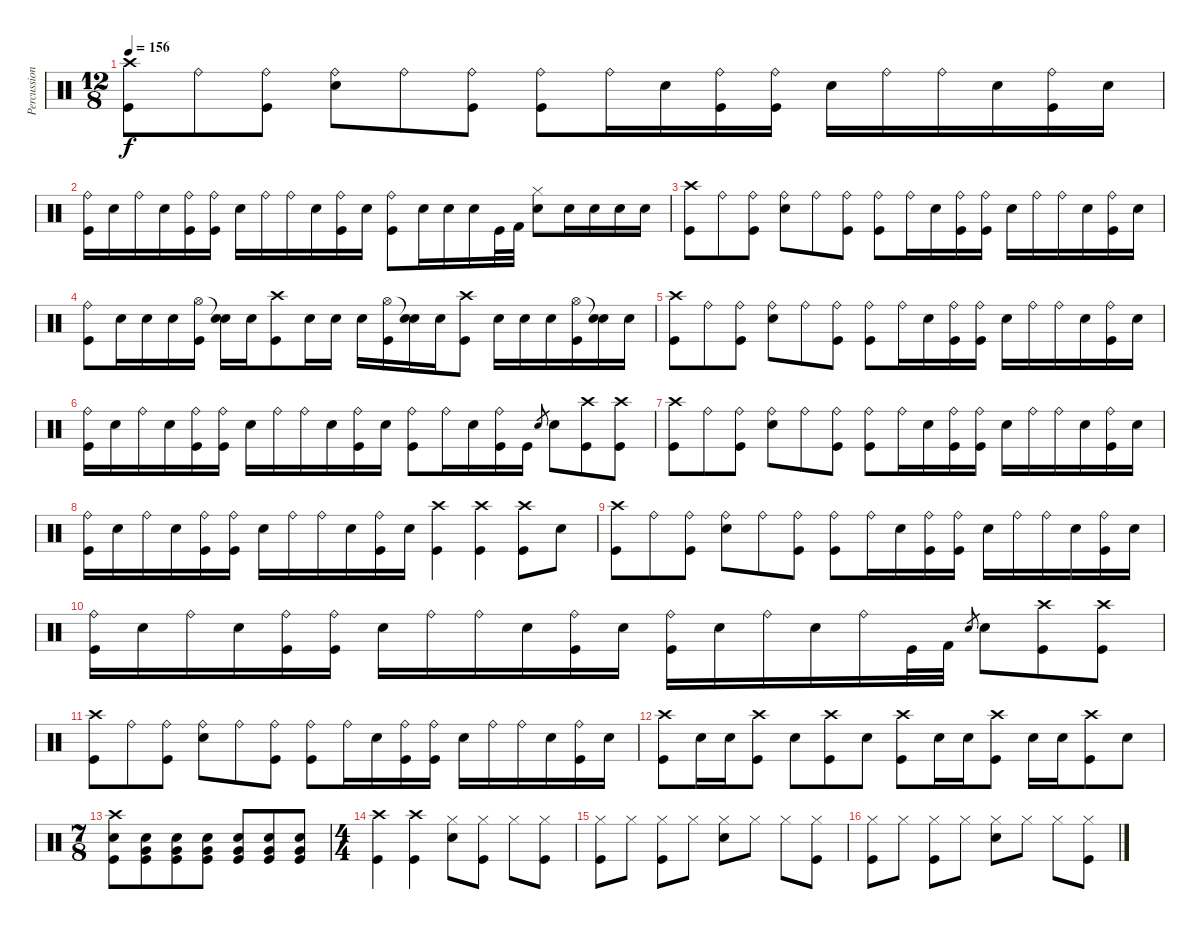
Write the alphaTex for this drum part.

\track ("Percussion" "Percussion") {instrument percussion}
\staff {score}
\articulation defaults
\ts (12 8)
\tempo 156
\clef neutral
\ks c
("Crash high (hit)" "Kick (hit)").8{dy f} "Ride (bell)".8 ("Ride (bell)" "Kick (hit)").8 ("Ride (bell)" "Electric Snare (hit)").8 "Ride (bell)".8 ("Ride (bell)" "Kick (hit)").8 ("Ride (bell)" "Kick (hit)").8 "Ride (bell)".16 "Electric Snare (hit)".16 ("Ride (bell)" "Kick (hit)").16 ("Ride (bell)" "Kick (hit)").16 "Electric Snare (hit)".16 "Ride (bell)".16 "Ride (bell)".16 "Electric Snare (hit)".16 ("Ride (bell)" "Kick (hit)").16 "Electric Snare (hit)".16 |
("Ride (bell)" "Kick (hit)").16 "Electric Snare (hit)".16 "Ride (bell)".16 "Electric Snare (hit)".16 ("Ride (bell)" "Kick (hit)").16 ("Ride (bell)" "Kick (hit)").16 "Electric Snare (hit)".16 "Ride (bell)".16 "Ride (bell)".16 "Electric Snare (hit)".16 ("Ride (bell)" "Kick (hit)").16 "Electric Snare (hit)".16 ("Ride (bell)" "Kick (hit)").8 "Electric Snare (hit)".16 "Electric Snare (hit)".16 "Electric Snare (hit)".16 "Kick (hit)".32 "Kick (hit) 2".32 ("Hi-Hat (closed)" "Electric Snare (hit)").8 "Electric Snare (hit)".16 "Electric Snare (hit)".16 "Electric Snare (hit)".16 "Electric Snare (hit)".16 |
("Crash high (hit)" "Kick (hit)").8 "Ride (bell)".8 ("Ride (bell)" "Kick (hit)").8 ("Ride (bell)" "Electric Snare (hit)").8 "Ride (bell)".8 ("Ride (bell)" "Kick (hit)").8 ("Ride (bell)" "Kick (hit)").8 "Ride (bell)".16 "Electric Snare (hit)".16 ("Ride (bell)" "Kick (hit)").16 ("Ride (bell)" "Kick (hit)").16 "Electric Snare (hit)".16 "Ride (bell)".16 "Ride (bell)".16 "Electric Snare (hit)".16 ("Ride (bell)" "Kick (hit)").16 "Electric Snare (hit)".16 |
("Ride (bell)" "Kick (hit)").8 "Electric Snare (hit)".16 "Electric Snare (hit)".16 "Electric Snare (hit)".16 ("Hi-Hat (open)" "Kick (hit)").16 ("Snare (hit)"{t} "Electric Snare (hit)").16 "Electric Snare (hit)".16 ("Crash high (hit)" "Kick (hit)").8 "Electric Snare (hit)".16 "Electric Snare (hit)".16 "Electric Snare (hit)".16 ("Hi-Hat (open)" "Kick (hit)").16 ("Snare (hit)"{t} "Electric Snare (hit)").16 "Electric Snare (hit)".16 ("Crash high (hit)" "Kick (hit)").8 "Electric Snare (hit)".16 "Electric Snare (hit)".16 "Electric Snare (hit)".16 ("Hi-Hat (open)" "Kick (hit)").16 ("Snare (hit)"{t} "Electric Snare (hit)").16 "Electric Snare (hit)".16 |
("Crash high (hit)" "Kick (hit)").8 "Ride (bell)".8 ("Ride (bell)" "Kick (hit)").8 ("Ride (bell)" "Electric Snare (hit)").8 "Ride (bell)".8 ("Ride (bell)" "Kick (hit)").8 ("Ride (bell)" "Kick (hit)").8 "Ride (bell)".16 "Electric Snare (hit)".16 ("Ride (bell)" "Kick (hit)").16 ("Ride (bell)" "Kick (hit)").16 "Electric Snare (hit)".16 "Ride (bell)".16 "Ride (bell)".16 "Electric Snare (hit)".16 ("Ride (bell)" "Kick (hit)").16 "Electric Snare (hit)".16 |
("Ride (bell)" "Kick (hit)").16 "Electric Snare (hit)".16 "Ride (bell)".16 "Electric Snare (hit)".16 ("Ride (bell)" "Kick (hit)").16 ("Ride (bell)" "Kick (hit)").16 "Electric Snare (hit)".16 "Ride (bell)".16 "Ride (bell)".16 "Electric Snare (hit)".16 ("Ride (bell)" "Kick (hit)").16 "Electric Snare (hit)".16 ("Ride (bell)" "Kick (hit)").8 "Ride (bell)".16 "Electric Snare (hit)".16 ("Ride (bell)" "Kick (hit)").16 "Kick (hit)".16 "Snare (hit) 2".8{gr} "Electric Snare (hit)".8 ("Crash high (hit)" "Kick (hit)").8 ("Crash high (hit)" "Kick (hit)").8 |
("Crash high (hit)" "Kick (hit)").8 "Ride (bell)".8 ("Ride (bell)" "Kick (hit)").8 ("Ride (bell)" "Electric Snare (hit)").8 "Ride (bell)".8 ("Ride (bell)" "Kick (hit)").8 ("Ride (bell)" "Kick (hit)").8 "Ride (bell)".16 "Electric Snare (hit)".16 ("Ride (bell)" "Kick (hit)").16 ("Ride (bell)" "Kick (hit)").16 "Electric Snare (hit)".16 "Ride (bell)".16 "Ride (bell)".16 "Electric Snare (hit)".16 ("Ride (bell)" "Kick (hit)").16 "Electric Snare (hit)".16 |
("Ride (bell)" "Kick (hit)").16 "Electric Snare (hit)".16 "Ride (bell)".16 "Electric Snare (hit)".16 ("Ride (bell)" "Kick (hit)").16 ("Ride (bell)" "Kick (hit)").16 "Electric Snare (hit)".16 "Ride (bell)".16 "Ride (bell)".16 "Electric Snare (hit)".16 ("Ride (bell)" "Kick (hit)").16 "Electric Snare (hit)".16 ("Crash high (hit)" "Kick (hit)").4 ("Crash high (hit)" "Kick (hit)").4 ("Crash high (hit)" "Kick (hit)").8 "Electric Snare (hit)".8 |
("Crash high (hit)" "Kick (hit)").8 "Ride (bell)".8 ("Ride (bell)" "Kick (hit)").8 ("Ride (bell)" "Electric Snare (hit)").8 "Ride (bell)".8 ("Ride (bell)" "Kick (hit)").8 ("Ride (bell)" "Kick (hit)").8 "Ride (bell)".16 "Electric Snare (hit)".16 ("Ride (bell)" "Kick (hit)").16 ("Ride (bell)" "Kick (hit)").16 "Electric Snare (hit)".16 "Ride (bell)".16 "Ride (bell)".16 "Electric Snare (hit)".16 ("Ride (bell)" "Kick (hit)").16 "Electric Snare (hit)".16 |
("Ride (bell)" "Kick (hit)").16 "Electric Snare (hit)".16 "Ride (bell)".16 "Electric Snare (hit)".16 ("Ride (bell)" "Kick (hit)").16 ("Ride (bell)" "Kick (hit)").16 "Electric Snare (hit)".16 "Ride (bell)".16 "Ride (bell)".16 "Electric Snare (hit)".16 ("Ride (bell)" "Kick (hit)").16 "Electric Snare (hit)".16 ("Ride (bell)" "Kick (hit)").16 "Electric Snare (hit)".16 "Ride (bell)".16 "Electric Snare (hit)".16 "Ride (bell)".16 "Kick (hit)".32 "Kick (hit) 2".32 "Snare (hit) 2".8{gr} "Electric Snare (hit)".8 ("Crash high (hit)" "Kick (hit)").8 ("Crash high (hit)" "Kick (hit)").8 |
("Crash high (hit)" "Kick (hit)").8 "Ride (bell)".8 ("Ride (bell)" "Kick (hit)").8 ("Ride (bell)" "Electric Snare (hit)").8 "Ride (bell)".8 ("Ride (bell)" "Kick (hit)").8 ("Ride (bell)" "Kick (hit)").8 "Ride (bell)".16 "Electric Snare (hit)".16 ("Ride (bell)" "Kick (hit)").16 ("Ride (bell)" "Kick (hit)").16 "Electric Snare (hit)".16 "Ride (bell)".16 "Ride (bell)".16 "Electric Snare (hit)".16 ("Ride (bell)" "Kick (hit)").16 "Electric Snare (hit)".16 |
("Crash high (hit)" "Kick (hit)").8 "Electric Snare (hit)".16 "Electric Snare (hit)".16 ("Crash high (hit)" "Kick (hit)").8 "Electric Snare (hit)".8 ("Crash high (hit)" "Kick (hit)").8 "Electric Snare (hit)".8 ("Crash high (hit)" "Kick (hit)").8 "Electric Snare (hit)".16 "Electric Snare (hit)".16 ("Crash high (hit)" "Kick (hit)").8 "Electric Snare (hit)".16 "Electric Snare (hit)".16 ("Crash high (hit)" "Kick (hit)").8 "Electric Snare (hit)".8 |
\ts (7 8)
("Crash high (hit)" "Electric Snare (hit)" "Kick (hit)").8 ("Very Low Tom (hit)" "Electric Snare (hit)" "Kick (hit)").8 ("Very Low Tom (hit)" "Electric Snare (hit)" "Kick (hit)").8 ("Very Low Tom (hit)" "Electric Snare (hit)" "Kick (hit)").8 ("Very Low Tom (hit)" "Electric Snare (hit)" "Kick (hit)").8 ("Very Low Tom (hit)" "Electric Snare (hit)" "Kick (hit)").8 ("Very Low Tom (hit)" "Electric Snare (hit)" "Kick (hit)").8 |
\ts (4 4)
("Crash high (hit)" "Kick (hit)").4 ("Crash high (hit)" "Kick (hit)").4 ("Hi-Hat (closed)" "Electric Snare (hit)").8 ("Hi-Hat (closed)" "Kick (hit)").8 "Hi-Hat (closed)".8 ("Hi-Hat (closed)" "Kick (hit)").8 |
("Hi-Hat (closed)" "Kick (hit)").8 "Hi-Hat (closed)".8 ("Hi-Hat (closed)" "Kick (hit)").8 "Hi-Hat (closed)".8 ("Hi-Hat (closed)" "Electric Snare (hit)").8 "Hi-Hat (closed)".8 "Hi-Hat (closed)".8 ("Hi-Hat (closed)" "Kick (hit)").8 |
("Hi-Hat (closed)" "Kick (hit)").8 "Hi-Hat (closed)".8 ("Hi-Hat (closed)" "Kick (hit)").8 "Hi-Hat (closed)".8 ("Hi-Hat (closed)" "Electric Snare (hit)").8 "Hi-Hat (closed)".8 "Hi-Hat (closed)".8 ("Hi-Hat (closed)" "Kick (hit)").8
